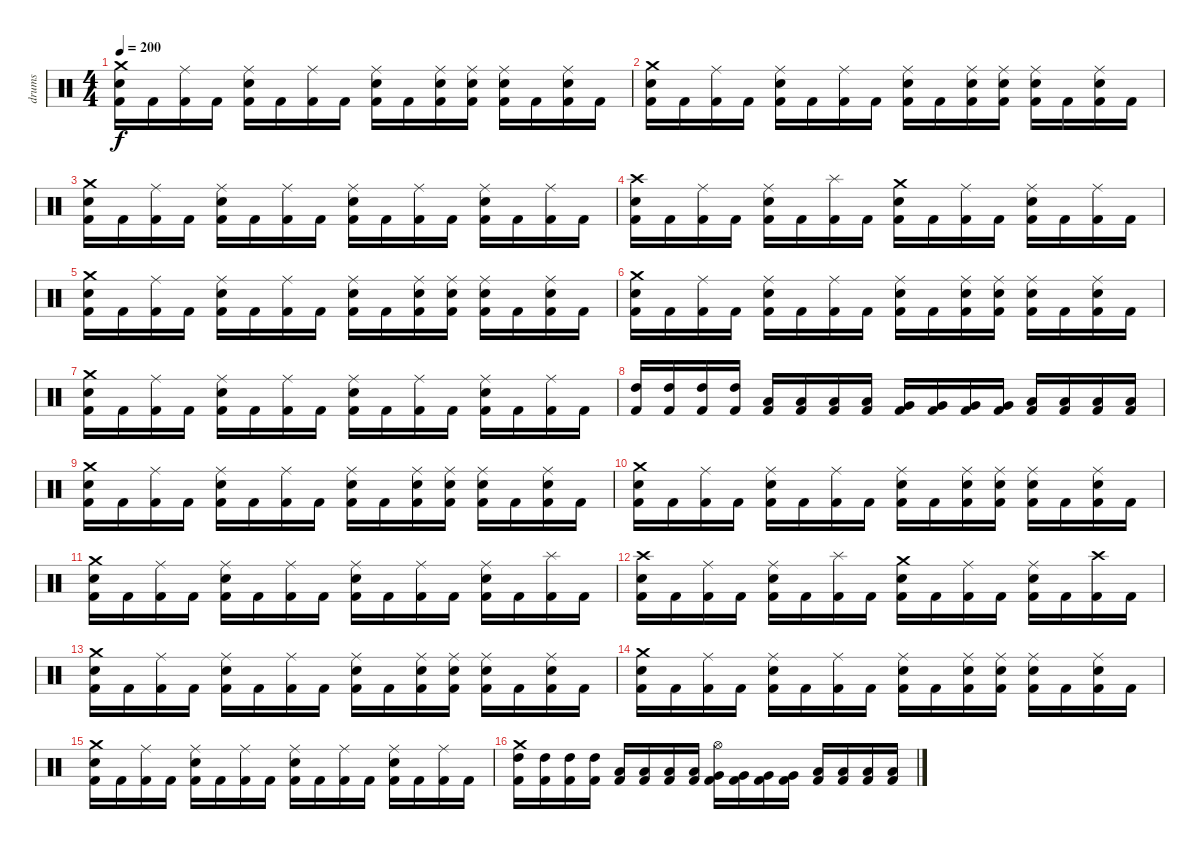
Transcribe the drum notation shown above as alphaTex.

\track ("drums" "drums") {instrument percussion}
\staff {score}
\articulation defaults
\ts (4 4)
\tempo 200
\clef neutral
\ks c
("Crash medium (hit)" "Snare (hit) 2" "Kick (hit) 2").16{dy f} "Kick (hit) 2".16 ("Ride (middle)" "Kick (hit) 2").16 "Kick (hit) 2".16 ("Ride (middle)" "Snare (hit) 2" "Kick (hit) 2").16 "Kick (hit) 2".16 ("Ride (middle)" "Kick (hit) 2").16 "Kick (hit) 2".16 ("Ride (middle)" "Snare (hit) 2" "Kick (hit) 2").16 "Kick (hit) 2".16 ("Ride (middle)" "Snare (hit) 2" "Kick (hit) 2").16 ("Ride (middle)" "Snare (hit) 2" "Kick (hit) 2").16 ("Ride (middle)" "Snare (hit) 2" "Kick (hit) 2").16 "Kick (hit) 2".16 ("Ride (middle)" "Snare (hit) 2" "Kick (hit) 2").16 "Kick (hit) 2".16 |
("Crash medium (hit)" "Snare (hit) 2" "Kick (hit) 2").16 "Kick (hit) 2".16 ("Ride (middle)" "Kick (hit) 2").16 "Kick (hit) 2".16 ("Ride (middle)" "Snare (hit) 2" "Kick (hit) 2").16 "Kick (hit) 2".16 ("Ride (middle)" "Kick (hit) 2").16 "Kick (hit) 2".16 ("Ride (middle)" "Snare (hit) 2" "Kick (hit) 2").16 "Kick (hit) 2".16 ("Ride (middle)" "Snare (hit) 2" "Kick (hit) 2").16 ("Ride (middle)" "Snare (hit) 2" "Kick (hit) 2").16 ("Ride (middle)" "Snare (hit) 2" "Kick (hit) 2").16 "Kick (hit) 2".16 ("Ride (middle)" "Snare (hit) 2" "Kick (hit) 2").16 "Kick (hit) 2".16 |
("Crash medium (hit)" "Snare (hit) 2" "Kick (hit) 2").16 "Kick (hit) 2".16 ("Ride (middle)" "Kick (hit) 2").16 "Kick (hit) 2".16 ("Ride (middle)" "Snare (hit) 2" "Kick (hit) 2").16 "Kick (hit) 2".16 ("Ride (middle)" "Kick (hit) 2").16 "Kick (hit) 2".16 ("Ride (middle)" "Snare (hit) 2" "Kick (hit) 2").16 "Kick (hit) 2".16 ("Ride (middle)" "Kick (hit) 2").16 "Kick (hit) 2".16 ("Ride (middle)" "Snare (hit) 2" "Kick (hit) 2").16 "Kick (hit) 2".16 ("Ride (middle)" "Kick (hit) 2").16 "Kick (hit) 2".16 |
("Crash high (hit)" "Snare (hit) 2" "Kick (hit) 2").16 "Kick (hit) 2".16 ("Ride (middle)" "Kick (hit) 2").16 "Kick (hit) 2".16 ("Ride (middle)" "Snare (hit) 2" "Kick (hit) 2").16 "Kick (hit) 2".16 ("Splash (hit)" "Kick (hit) 2").16 "Kick (hit) 2".16 ("Crash medium (hit)" "Snare (hit) 2" "Kick (hit) 2").16 "Kick (hit) 2".16 ("Ride (middle)" "Kick (hit) 2").16 "Kick (hit) 2".16 ("Ride (middle)" "Snare (hit) 2" "Kick (hit) 2").16 "Kick (hit) 2".16 ("Ride (middle)" "Kick (hit) 2").16 "Kick (hit) 2".16 |
("Crash medium (hit)" "Snare (hit) 2" "Kick (hit) 2").16 "Kick (hit) 2".16 ("Ride (middle)" "Kick (hit) 2").16 "Kick (hit) 2".16 ("Ride (middle)" "Snare (hit) 2" "Kick (hit) 2").16 "Kick (hit) 2".16 ("Ride (middle)" "Kick (hit) 2").16 "Kick (hit) 2".16 ("Ride (middle)" "Snare (hit) 2" "Kick (hit) 2").16 "Kick (hit) 2".16 ("Ride (middle)" "Snare (hit) 2" "Kick (hit) 2").16 ("Ride (middle)" "Snare (hit) 2" "Kick (hit) 2").16 ("Ride (middle)" "Snare (hit) 2" "Kick (hit) 2").16 "Kick (hit) 2".16 ("Ride (middle)" "Snare (hit) 2" "Kick (hit) 2").16 "Kick (hit) 2".16 |
("Crash medium (hit)" "Snare (hit) 2" "Kick (hit) 2").16 "Kick (hit) 2".16 ("Ride (middle)" "Kick (hit) 2").16 "Kick (hit) 2".16 ("Ride (middle)" "Snare (hit) 2" "Kick (hit) 2").16 "Kick (hit) 2".16 ("Ride (middle)" "Kick (hit) 2").16 "Kick (hit) 2".16 ("Ride (middle)" "Snare (hit) 2" "Kick (hit) 2").16 "Kick (hit) 2".16 ("Ride (middle)" "Snare (hit) 2" "Kick (hit) 2").16 ("Ride (middle)" "Snare (hit) 2" "Kick (hit) 2").16 ("Ride (middle)" "Snare (hit) 2" "Kick (hit) 2").16 "Kick (hit) 2".16 ("Ride (middle)" "Snare (hit) 2" "Kick (hit) 2").16 "Kick (hit) 2".16 |
("Crash medium (hit)" "Snare (hit) 2" "Kick (hit) 2").16 "Kick (hit) 2".16 ("Ride (middle)" "Kick (hit) 2").16 "Kick (hit) 2".16 ("Ride (middle)" "Snare (hit) 2" "Kick (hit) 2").16 "Kick (hit) 2".16 ("Ride (middle)" "Kick (hit) 2").16 "Kick (hit) 2".16 ("Ride (middle)" "Snare (hit) 2" "Kick (hit) 2").16 "Kick (hit) 2".16 ("Ride (middle)" "Kick (hit) 2").16 "Kick (hit) 2".16 ("Ride (middle)" "Snare (hit) 2" "Kick (hit) 2").16 "Kick (hit) 2".16 ("Ride (middle)" "Kick (hit) 2").16 "Kick (hit) 2".16 |
("High Tom (hit)" "Kick (hit) 2").16 ("High Tom (hit)" "Kick (hit) 2").16 ("High Tom (hit)" "Kick (hit) 2").16 ("High Tom (hit)" "Kick (hit) 2").16 ("Low Tom (hit)" "Kick (hit) 2").16 ("Low Tom (hit)" "Kick (hit) 2").16 ("Low Tom (hit)" "Kick (hit) 2").16 ("Low Tom (hit)" "Kick (hit) 2").16 ("Very Low Tom (hit)" "Kick (hit) 2").16 ("Very Low Tom (hit)" "Kick (hit) 2").16 ("Very Low Tom (hit)" "Kick (hit) 2").16 ("Very Low Tom (hit)" "Kick (hit) 2").16 ("Low Floor Tom (hit)" "Kick (hit) 2").16 ("Low Floor Tom (hit)" "Kick (hit) 2").16 ("Low Floor Tom (hit)" "Kick (hit) 2").16 ("Low Floor Tom (hit)" "Kick (hit) 2").16 |
("Crash medium (hit)" "Snare (hit) 2" "Kick (hit) 2").16 "Kick (hit) 2".16 ("Ride (middle)" "Kick (hit) 2").16 "Kick (hit) 2".16 ("Ride (middle)" "Snare (hit) 2" "Kick (hit) 2").16 "Kick (hit) 2".16 ("Ride (middle)" "Kick (hit) 2").16 "Kick (hit) 2".16 ("Ride (middle)" "Snare (hit) 2" "Kick (hit) 2").16 "Kick (hit) 2".16 ("Ride (middle)" "Snare (hit) 2" "Kick (hit) 2").16 ("Ride (middle)" "Snare (hit) 2" "Kick (hit) 2").16 ("Ride (middle)" "Snare (hit) 2" "Kick (hit) 2").16 "Kick (hit) 2".16 ("Ride (middle)" "Snare (hit) 2" "Kick (hit) 2").16 "Kick (hit) 2".16 |
("Crash medium (hit)" "Snare (hit) 2" "Kick (hit) 2").16 "Kick (hit) 2".16 ("Ride (middle)" "Kick (hit) 2").16 "Kick (hit) 2".16 ("Ride (middle)" "Snare (hit) 2" "Kick (hit) 2").16 "Kick (hit) 2".16 ("Ride (middle)" "Kick (hit) 2").16 "Kick (hit) 2".16 ("Ride (middle)" "Snare (hit) 2" "Kick (hit) 2").16 "Kick (hit) 2".16 ("Ride (middle)" "Snare (hit) 2" "Kick (hit) 2").16 ("Ride (middle)" "Snare (hit) 2" "Kick (hit) 2").16 ("Ride (middle)" "Snare (hit) 2" "Kick (hit) 2").16 "Kick (hit) 2".16 ("Ride (middle)" "Snare (hit) 2" "Kick (hit) 2").16 "Kick (hit) 2".16 |
("Crash medium (hit)" "Snare (hit) 2" "Kick (hit) 2").16 "Kick (hit) 2".16 ("Ride (middle)" "Kick (hit) 2").16 "Kick (hit) 2".16 ("Ride (middle)" "Snare (hit) 2" "Kick (hit) 2").16 "Kick (hit) 2".16 ("Ride (middle)" "Kick (hit) 2").16 "Kick (hit) 2".16 ("Ride (middle)" "Snare (hit) 2" "Kick (hit) 2").16 "Kick (hit) 2".16 ("Ride (middle)" "Kick (hit) 2").16 "Kick (hit) 2".16 ("Ride (middle)" "Snare (hit) 2" "Kick (hit) 2").16 "Kick (hit) 2".16 ("Splash (hit)" "Kick (hit) 2").16 "Kick (hit) 2".16 |
("Crash high (hit)" "Snare (hit) 2" "Kick (hit) 2").16 "Kick (hit) 2".16 ("Ride (middle)" "Kick (hit) 2").16 "Kick (hit) 2".16 ("Ride (middle)" "Snare (hit) 2" "Kick (hit) 2").16 "Kick (hit) 2".16 ("Splash (hit)" "Kick (hit) 2").16 "Kick (hit) 2".16 ("Crash medium (hit)" "Snare (hit) 2" "Kick (hit) 2").16 "Kick (hit) 2".16 ("Ride (middle)" "Kick (hit) 2").16 "Kick (hit) 2".16 ("Ride (middle)" "Snare (hit) 2" "Kick (hit) 2").16 "Kick (hit) 2".16 ("Crash high (hit)" "Kick (hit) 2").16 "Kick (hit) 2".16 |
("Crash medium (hit)" "Snare (hit) 2" "Kick (hit) 2").16 "Kick (hit) 2".16 ("Ride (middle)" "Kick (hit) 2").16 "Kick (hit) 2".16 ("Ride (middle)" "Snare (hit) 2" "Kick (hit) 2").16 "Kick (hit) 2".16 ("Ride (middle)" "Kick (hit) 2").16 "Kick (hit) 2".16 ("Ride (middle)" "Snare (hit) 2" "Kick (hit) 2").16 "Kick (hit) 2".16 ("Ride (middle)" "Snare (hit) 2" "Kick (hit) 2").16 ("Ride (middle)" "Snare (hit) 2" "Kick (hit) 2").16 ("Ride (middle)" "Snare (hit) 2" "Kick (hit) 2").16 "Kick (hit) 2".16 ("Ride (middle)" "Snare (hit) 2" "Kick (hit) 2").16 "Kick (hit) 2".16 |
("Crash medium (hit)" "Snare (hit) 2" "Kick (hit) 2").16 "Kick (hit) 2".16 ("Ride (middle)" "Kick (hit) 2").16 "Kick (hit) 2".16 ("Ride (middle)" "Snare (hit) 2" "Kick (hit) 2").16 "Kick (hit) 2".16 ("Ride (middle)" "Kick (hit) 2").16 "Kick (hit) 2".16 ("Ride (middle)" "Snare (hit) 2" "Kick (hit) 2").16 "Kick (hit) 2".16 ("Ride (middle)" "Snare (hit) 2" "Kick (hit) 2").16 ("Ride (middle)" "Snare (hit) 2" "Kick (hit) 2").16 ("Ride (middle)" "Snare (hit) 2" "Kick (hit) 2").16 "Kick (hit) 2".16 ("Ride (middle)" "Snare (hit) 2" "Kick (hit) 2").16 "Kick (hit) 2".16 |
("Crash medium (hit)" "Snare (hit) 2" "Kick (hit) 2").16 "Kick (hit) 2".16 ("Ride (middle)" "Kick (hit) 2").16 "Kick (hit) 2".16 ("Ride (middle)" "Snare (hit) 2" "Kick (hit) 2").16 "Kick (hit) 2".16 ("Ride (middle)" "Kick (hit) 2").16 "Kick (hit) 2".16 ("Ride (middle)" "Snare (hit) 2" "Kick (hit) 2").16 "Kick (hit) 2".16 ("Ride (middle)" "Kick (hit) 2").16 "Kick (hit) 2".16 ("Ride (middle)" "Snare (hit) 2" "Kick (hit) 2").16 "Kick (hit) 2".16 ("Ride (middle)" "Kick (hit) 2").16 "Kick (hit) 2".16 |
("Crash medium (hit)" "High Tom (hit)" "Kick (hit) 2").16 ("High Tom (hit)" "Kick (hit) 2").16 ("High Tom (hit)" "Kick (hit) 2").16 ("High Tom (hit)" "Kick (hit) 2").16 ("Low Tom (hit)" "Kick (hit) 2").16 ("Low Tom (hit)" "Kick (hit) 2").16 ("Low Tom (hit)" "Kick (hit) 2").16 ("Low Tom (hit)" "Kick (hit) 2").16 ("Hi-Hat (open)" "Very Low Tom (hit)" "Kick (hit) 2").16 ("Very Low Tom (hit)" "Kick (hit) 2").16 ("Very Low Tom (hit)" "Kick (hit) 2").16 ("Very Low Tom (hit)" "Kick (hit) 2").16 ("Low Floor Tom (hit)" "Kick (hit) 2").16 ("Low Floor Tom (hit)" "Kick (hit) 2").16 ("Low Floor Tom (hit)" "Kick (hit) 2").16 ("Low Floor Tom (hit)" "Kick (hit) 2").16
